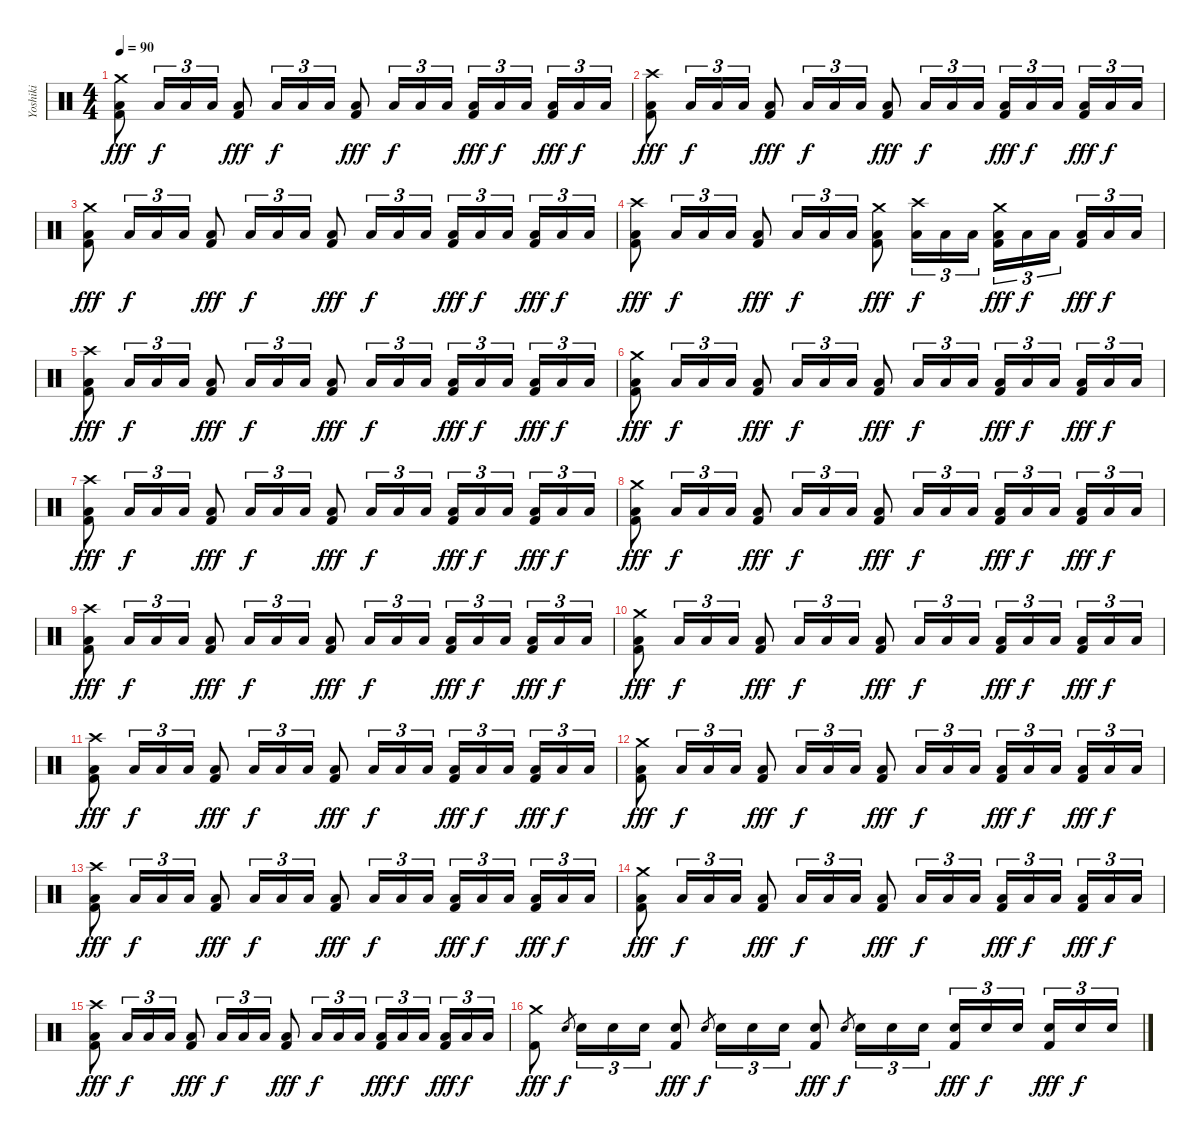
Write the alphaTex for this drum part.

\track ("Yoshiki" "Yoshiki") {instrument percussion}
\staff {score}
\articulation defaults
\ts (4 4)
\tempo 90
\clef neutral
\ks c
("Crash medium (hit)" "Low Floor Tom (hit)" "Kick (hit) 2").8{dy fff} "Low Floor Tom (hit)".16{tu (3 2) dy f} "Low Floor Tom (hit)".16{tu (3 2)} "Low Floor Tom (hit)".16{tu (3 2)} ("Low Floor Tom (hit)" "Kick (hit) 2").8{dy fff} "Low Floor Tom (hit)".16{tu (3 2) dy f} "Low Floor Tom (hit)".16{tu (3 2)} "Low Floor Tom (hit)".16{tu (3 2)} ("Low Floor Tom (hit)" "Kick (hit) 2").8{dy fff} "Low Floor Tom (hit)".16{tu (3 2) dy f} "Low Floor Tom (hit)".16{tu (3 2)} "Low Floor Tom (hit)".16{tu (3 2)} ("Low Floor Tom (hit)" "Kick (hit) 2").16{tu (3 2) dy fff} "Low Floor Tom (hit)".16{tu (3 2) dy f} "Low Floor Tom (hit)".16{tu (3 2)} ("Low Floor Tom (hit)" "Kick (hit) 2").16{tu (3 2) dy fff} "Low Floor Tom (hit)".16{tu (3 2) dy f} "Low Floor Tom (hit)".16{tu (3 2)} |
("Crash high (hit)" "Low Floor Tom (hit)" "Kick (hit) 2").8{dy fff} "Low Floor Tom (hit)".16{tu (3 2) dy f} "Low Floor Tom (hit)".16{tu (3 2)} "Low Floor Tom (hit)".16{tu (3 2)} ("Low Floor Tom (hit)" "Kick (hit) 2").8{dy fff} "Low Floor Tom (hit)".16{tu (3 2) dy f} "Low Floor Tom (hit)".16{tu (3 2)} "Low Floor Tom (hit)".16{tu (3 2)} ("Low Floor Tom (hit)" "Kick (hit) 2").8{dy fff} "Low Floor Tom (hit)".16{tu (3 2) dy f} "Low Floor Tom (hit)".16{tu (3 2)} "Low Floor Tom (hit)".16{tu (3 2)} ("Low Floor Tom (hit)" "Kick (hit) 2").16{tu (3 2) dy fff} "Low Floor Tom (hit)".16{tu (3 2) dy f} "Low Floor Tom (hit)".16{tu (3 2)} ("Low Floor Tom (hit)" "Kick (hit) 2").16{tu (3 2) dy fff} "Low Floor Tom (hit)".16{tu (3 2) dy f} "Low Floor Tom (hit)".16{tu (3 2)} |
("Crash medium (hit)" "Low Floor Tom (hit)" "Kick (hit) 2").8{dy fff} "Low Floor Tom (hit)".16{tu (3 2) dy f} "Low Floor Tom (hit)".16{tu (3 2)} "Low Floor Tom (hit)".16{tu (3 2)} ("Low Floor Tom (hit)" "Kick (hit) 2").8{dy fff} "Low Floor Tom (hit)".16{tu (3 2) dy f} "Low Floor Tom (hit)".16{tu (3 2)} "Low Floor Tom (hit)".16{tu (3 2)} ("Low Floor Tom (hit)" "Kick (hit) 2").8{dy fff} "Low Floor Tom (hit)".16{tu (3 2) dy f} "Low Floor Tom (hit)".16{tu (3 2)} "Low Floor Tom (hit)".16{tu (3 2)} ("Low Floor Tom (hit)" "Kick (hit) 2").16{tu (3 2) dy fff} "Low Floor Tom (hit)".16{tu (3 2) dy f} "Low Floor Tom (hit)".16{tu (3 2)} ("Low Floor Tom (hit)" "Kick (hit) 2").16{tu (3 2) dy fff} "Low Floor Tom (hit)".16{tu (3 2) dy f} "Low Floor Tom (hit)".16{tu (3 2)} |
("Crash high (hit)" "Low Floor Tom (hit)" "Kick (hit) 2").8{dy fff} "Low Floor Tom (hit)".16{tu (3 2) dy f} "Low Floor Tom (hit)".16{tu (3 2)} "Low Floor Tom (hit)".16{tu (3 2)} ("Low Floor Tom (hit)" "Kick (hit) 2").8{dy fff} "Low Floor Tom (hit)".16{tu (3 2) dy f} "Low Floor Tom (hit)".16{tu (3 2)} "Low Floor Tom (hit)".16{tu (3 2)} ("Crash medium (hit)" "Low Floor Tom (hit)" "Kick (hit) 2").8{dy fff} ("Crash high (hit)" "Low Floor Tom (hit)").16{tu (3 2) dy f} "Low Floor Tom (hit)".16{tu (3 2)} "Low Floor Tom (hit)".16{tu (3 2)} ("Crash medium (hit)" "Low Floor Tom (hit)" "Kick (hit) 2").16{tu (3 2) dy fff} "Low Floor Tom (hit)".16{tu (3 2) dy f} "Low Floor Tom (hit)".16{tu (3 2)} ("Low Floor Tom (hit)" "Kick (hit) 2").16{tu (3 2) dy fff} "Low Floor Tom (hit)".16{tu (3 2) dy f} "Low Floor Tom (hit)".16{tu (3 2)} |
("Crash high (hit)" "Low Floor Tom (hit)" "Kick (hit) 2").8{dy fff} "Low Floor Tom (hit)".16{tu (3 2) dy f} "Low Floor Tom (hit)".16{tu (3 2)} "Low Floor Tom (hit)".16{tu (3 2)} ("Low Floor Tom (hit)" "Kick (hit) 2").8{dy fff} "Low Floor Tom (hit)".16{tu (3 2) dy f} "Low Floor Tom (hit)".16{tu (3 2)} "Low Floor Tom (hit)".16{tu (3 2)} ("Low Floor Tom (hit)" "Kick (hit) 2").8{dy fff} "Low Floor Tom (hit)".16{tu (3 2) dy f} "Low Floor Tom (hit)".16{tu (3 2)} "Low Floor Tom (hit)".16{tu (3 2)} ("Low Floor Tom (hit)" "Kick (hit) 2").16{tu (3 2) dy fff} "Low Floor Tom (hit)".16{tu (3 2) dy f} "Low Floor Tom (hit)".16{tu (3 2)} ("Low Floor Tom (hit)" "Kick (hit) 2").16{tu (3 2) dy fff} "Low Floor Tom (hit)".16{tu (3 2) dy f} "Low Floor Tom (hit)".16{tu (3 2)} |
("Crash medium (hit)" "Low Floor Tom (hit)" "Kick (hit) 2").8{dy fff} "Low Floor Tom (hit)".16{tu (3 2) dy f} "Low Floor Tom (hit)".16{tu (3 2)} "Low Floor Tom (hit)".16{tu (3 2)} ("Low Floor Tom (hit)" "Kick (hit) 2").8{dy fff} "Low Floor Tom (hit)".16{tu (3 2) dy f} "Low Floor Tom (hit)".16{tu (3 2)} "Low Floor Tom (hit)".16{tu (3 2)} ("Low Floor Tom (hit)" "Kick (hit) 2").8{dy fff} "Low Floor Tom (hit)".16{tu (3 2) dy f} "Low Floor Tom (hit)".16{tu (3 2)} "Low Floor Tom (hit)".16{tu (3 2)} ("Low Floor Tom (hit)" "Kick (hit) 2").16{tu (3 2) dy fff} "Low Floor Tom (hit)".16{tu (3 2) dy f} "Low Floor Tom (hit)".16{tu (3 2)} ("Low Floor Tom (hit)" "Kick (hit) 2").16{tu (3 2) dy fff} "Low Floor Tom (hit)".16{tu (3 2) dy f} "Low Floor Tom (hit)".16{tu (3 2)} |
("Crash high (hit)" "Low Floor Tom (hit)" "Kick (hit) 2").8{dy fff} "Low Floor Tom (hit)".16{tu (3 2) dy f} "Low Floor Tom (hit)".16{tu (3 2)} "Low Floor Tom (hit)".16{tu (3 2)} ("Low Floor Tom (hit)" "Kick (hit) 2").8{dy fff} "Low Floor Tom (hit)".16{tu (3 2) dy f} "Low Floor Tom (hit)".16{tu (3 2)} "Low Floor Tom (hit)".16{tu (3 2)} ("Low Floor Tom (hit)" "Kick (hit) 2").8{dy fff} "Low Floor Tom (hit)".16{tu (3 2) dy f} "Low Floor Tom (hit)".16{tu (3 2)} "Low Floor Tom (hit)".16{tu (3 2)} ("Low Floor Tom (hit)" "Kick (hit) 2").16{tu (3 2) dy fff} "Low Floor Tom (hit)".16{tu (3 2) dy f} "Low Floor Tom (hit)".16{tu (3 2)} ("Low Floor Tom (hit)" "Kick (hit) 2").16{tu (3 2) dy fff} "Low Floor Tom (hit)".16{tu (3 2) dy f} "Low Floor Tom (hit)".16{tu (3 2)} |
("Crash medium (hit)" "Low Floor Tom (hit)" "Kick (hit) 2").8{dy fff} "Low Floor Tom (hit)".16{tu (3 2) dy f} "Low Floor Tom (hit)".16{tu (3 2)} "Low Floor Tom (hit)".16{tu (3 2)} ("Low Floor Tom (hit)" "Kick (hit) 2").8{dy fff} "Low Floor Tom (hit)".16{tu (3 2) dy f} "Low Floor Tom (hit)".16{tu (3 2)} "Low Floor Tom (hit)".16{tu (3 2)} ("Low Floor Tom (hit)" "Kick (hit) 2").8{dy fff} "Low Floor Tom (hit)".16{tu (3 2) dy f} "Low Floor Tom (hit)".16{tu (3 2)} "Low Floor Tom (hit)".16{tu (3 2)} ("Low Floor Tom (hit)" "Kick (hit) 2").16{tu (3 2) dy fff} "Low Floor Tom (hit)".16{tu (3 2) dy f} "Low Floor Tom (hit)".16{tu (3 2)} ("Low Floor Tom (hit)" "Kick (hit) 2").16{tu (3 2) dy fff} "Low Floor Tom (hit)".16{tu (3 2) dy f} "Low Floor Tom (hit)".16{tu (3 2)} |
("Crash high (hit)" "Low Floor Tom (hit)" "Kick (hit) 2").8{dy fff} "Low Floor Tom (hit)".16{tu (3 2) dy f} "Low Floor Tom (hit)".16{tu (3 2)} "Low Floor Tom (hit)".16{tu (3 2)} ("Low Floor Tom (hit)" "Kick (hit) 2").8{dy fff} "Low Floor Tom (hit)".16{tu (3 2) dy f} "Low Floor Tom (hit)".16{tu (3 2)} "Low Floor Tom (hit)".16{tu (3 2)} ("Low Floor Tom (hit)" "Kick (hit) 2").8{dy fff} "Low Floor Tom (hit)".16{tu (3 2) dy f} "Low Floor Tom (hit)".16{tu (3 2)} "Low Floor Tom (hit)".16{tu (3 2)} ("Low Floor Tom (hit)" "Kick (hit) 2").16{tu (3 2) dy fff} "Low Floor Tom (hit)".16{tu (3 2) dy f} "Low Floor Tom (hit)".16{tu (3 2)} ("Low Floor Tom (hit)" "Kick (hit) 2").16{tu (3 2) dy fff} "Low Floor Tom (hit)".16{tu (3 2) dy f} "Low Floor Tom (hit)".16{tu (3 2)} |
("Crash medium (hit)" "Low Floor Tom (hit)" "Kick (hit) 2").8{dy fff} "Low Floor Tom (hit)".16{tu (3 2) dy f} "Low Floor Tom (hit)".16{tu (3 2)} "Low Floor Tom (hit)".16{tu (3 2)} ("Low Floor Tom (hit)" "Kick (hit) 2").8{dy fff} "Low Floor Tom (hit)".16{tu (3 2) dy f} "Low Floor Tom (hit)".16{tu (3 2)} "Low Floor Tom (hit)".16{tu (3 2)} ("Low Floor Tom (hit)" "Kick (hit) 2").8{dy fff} "Low Floor Tom (hit)".16{tu (3 2) dy f} "Low Floor Tom (hit)".16{tu (3 2)} "Low Floor Tom (hit)".16{tu (3 2)} ("Low Floor Tom (hit)" "Kick (hit) 2").16{tu (3 2) dy fff} "Low Floor Tom (hit)".16{tu (3 2) dy f} "Low Floor Tom (hit)".16{tu (3 2)} ("Low Floor Tom (hit)" "Kick (hit) 2").16{tu (3 2) dy fff} "Low Floor Tom (hit)".16{tu (3 2) dy f} "Low Floor Tom (hit)".16{tu (3 2)} |
("Crash high (hit)" "Low Floor Tom (hit)" "Kick (hit) 2").8{dy fff} "Low Floor Tom (hit)".16{tu (3 2) dy f} "Low Floor Tom (hit)".16{tu (3 2)} "Low Floor Tom (hit)".16{tu (3 2)} ("Low Floor Tom (hit)" "Kick (hit) 2").8{dy fff} "Low Floor Tom (hit)".16{tu (3 2) dy f} "Low Floor Tom (hit)".16{tu (3 2)} "Low Floor Tom (hit)".16{tu (3 2)} ("Low Floor Tom (hit)" "Kick (hit) 2").8{dy fff} "Low Floor Tom (hit)".16{tu (3 2) dy f} "Low Floor Tom (hit)".16{tu (3 2)} "Low Floor Tom (hit)".16{tu (3 2)} ("Low Floor Tom (hit)" "Kick (hit) 2").16{tu (3 2) dy fff} "Low Floor Tom (hit)".16{tu (3 2) dy f} "Low Floor Tom (hit)".16{tu (3 2)} ("Low Floor Tom (hit)" "Kick (hit) 2").16{tu (3 2) dy fff} "Low Floor Tom (hit)".16{tu (3 2) dy f} "Low Floor Tom (hit)".16{tu (3 2)} |
("Crash medium (hit)" "Low Floor Tom (hit)" "Kick (hit) 2").8{dy fff} "Low Floor Tom (hit)".16{tu (3 2) dy f} "Low Floor Tom (hit)".16{tu (3 2)} "Low Floor Tom (hit)".16{tu (3 2)} ("Low Floor Tom (hit)" "Kick (hit) 2").8{dy fff} "Low Floor Tom (hit)".16{tu (3 2) dy f} "Low Floor Tom (hit)".16{tu (3 2)} "Low Floor Tom (hit)".16{tu (3 2)} ("Low Floor Tom (hit)" "Kick (hit) 2").8{dy fff} "Low Floor Tom (hit)".16{tu (3 2) dy f} "Low Floor Tom (hit)".16{tu (3 2)} "Low Floor Tom (hit)".16{tu (3 2)} ("Low Floor Tom (hit)" "Kick (hit) 2").16{tu (3 2) dy fff} "Low Floor Tom (hit)".16{tu (3 2) dy f} "Low Floor Tom (hit)".16{tu (3 2)} ("Low Floor Tom (hit)" "Kick (hit) 2").16{tu (3 2) dy fff} "Low Floor Tom (hit)".16{tu (3 2) dy f} "Low Floor Tom (hit)".16{tu (3 2)} |
("Crash high (hit)" "Low Floor Tom (hit)" "Kick (hit) 2").8{dy fff} "Low Floor Tom (hit)".16{tu (3 2) dy f} "Low Floor Tom (hit)".16{tu (3 2)} "Low Floor Tom (hit)".16{tu (3 2)} ("Low Floor Tom (hit)" "Kick (hit) 2").8{dy fff} "Low Floor Tom (hit)".16{tu (3 2) dy f} "Low Floor Tom (hit)".16{tu (3 2)} "Low Floor Tom (hit)".16{tu (3 2)} ("Low Floor Tom (hit)" "Kick (hit) 2").8{dy fff} "Low Floor Tom (hit)".16{tu (3 2) dy f} "Low Floor Tom (hit)".16{tu (3 2)} "Low Floor Tom (hit)".16{tu (3 2)} ("Low Floor Tom (hit)" "Kick (hit) 2").16{tu (3 2) dy fff} "Low Floor Tom (hit)".16{tu (3 2) dy f} "Low Floor Tom (hit)".16{tu (3 2)} ("Low Floor Tom (hit)" "Kick (hit) 2").16{tu (3 2) dy fff} "Low Floor Tom (hit)".16{tu (3 2) dy f} "Low Floor Tom (hit)".16{tu (3 2)} |
("Crash medium (hit)" "Low Floor Tom (hit)" "Kick (hit) 2").8{dy fff} "Low Floor Tom (hit)".16{tu (3 2) dy f} "Low Floor Tom (hit)".16{tu (3 2)} "Low Floor Tom (hit)".16{tu (3 2)} ("Low Floor Tom (hit)" "Kick (hit) 2").8{dy fff} "Low Floor Tom (hit)".16{tu (3 2) dy f} "Low Floor Tom (hit)".16{tu (3 2)} "Low Floor Tom (hit)".16{tu (3 2)} ("Low Floor Tom (hit)" "Kick (hit) 2").8{dy fff} "Low Floor Tom (hit)".16{tu (3 2) dy f} "Low Floor Tom (hit)".16{tu (3 2)} "Low Floor Tom (hit)".16{tu (3 2)} ("Low Floor Tom (hit)" "Kick (hit) 2").16{tu (3 2) dy fff} "Low Floor Tom (hit)".16{tu (3 2) dy f} "Low Floor Tom (hit)".16{tu (3 2)} ("Low Floor Tom (hit)" "Kick (hit) 2").16{tu (3 2) dy fff} "Low Floor Tom (hit)".16{tu (3 2) dy f} "Low Floor Tom (hit)".16{tu (3 2)} |
("Crash high (hit)" "Low Floor Tom (hit)" "Kick (hit) 2").8{dy fff} "Low Floor Tom (hit)".16{tu (3 2) dy f} "Low Floor Tom (hit)".16{tu (3 2)} "Low Floor Tom (hit)".16{tu (3 2)} ("Low Floor Tom (hit)" "Kick (hit) 2").8{dy fff} "Low Floor Tom (hit)".16{tu (3 2) dy f} "Low Floor Tom (hit)".16{tu (3 2)} "Low Floor Tom (hit)".16{tu (3 2)} ("Low Floor Tom (hit)" "Kick (hit) 2").8{dy fff} "Low Floor Tom (hit)".16{tu (3 2) dy f} "Low Floor Tom (hit)".16{tu (3 2)} "Low Floor Tom (hit)".16{tu (3 2)} ("Low Floor Tom (hit)" "Kick (hit) 2").16{tu (3 2) dy fff} "Low Floor Tom (hit)".16{tu (3 2) dy f} "Low Floor Tom (hit)".16{tu (3 2)} ("Low Floor Tom (hit)" "Kick (hit) 2").16{tu (3 2) dy fff} "Low Floor Tom (hit)".16{tu (3 2) dy f} "Low Floor Tom (hit)".16{tu (3 2)} |
("Crash medium (hit)" "Kick (hit) 2").8{dy fff} "Snare (hit) 2".8{gr dy f} "Snare (hit) 2".16{tu (3 2)} "Snare (hit) 2".16{tu (3 2)} "Snare (hit) 2".16{tu (3 2)} ("Snare (hit) 2" "Kick (hit) 2").8{dy fff} "Snare (hit) 2".8{gr dy f} "Snare (hit) 2".16{tu (3 2)} "Snare (hit) 2".16{tu (3 2)} "Snare (hit) 2".16{tu (3 2)} ("Snare (hit) 2" "Kick (hit) 2").8{dy fff} "Snare (hit) 2".8{gr dy f} "Snare (hit) 2".16{tu (3 2)} "Snare (hit) 2".16{tu (3 2)} "Snare (hit) 2".16{tu (3 2)} ("Snare (hit) 2" "Kick (hit) 2").16{tu (3 2) dy fff} "Snare (hit) 2".16{tu (3 2) dy f} "Snare (hit) 2".16{tu (3 2)} ("Snare (hit) 2" "Kick (hit) 2").16{tu (3 2) dy fff} "Snare (hit) 2".16{tu (3 2) dy f} "Snare (hit) 2".16{tu (3 2)}
